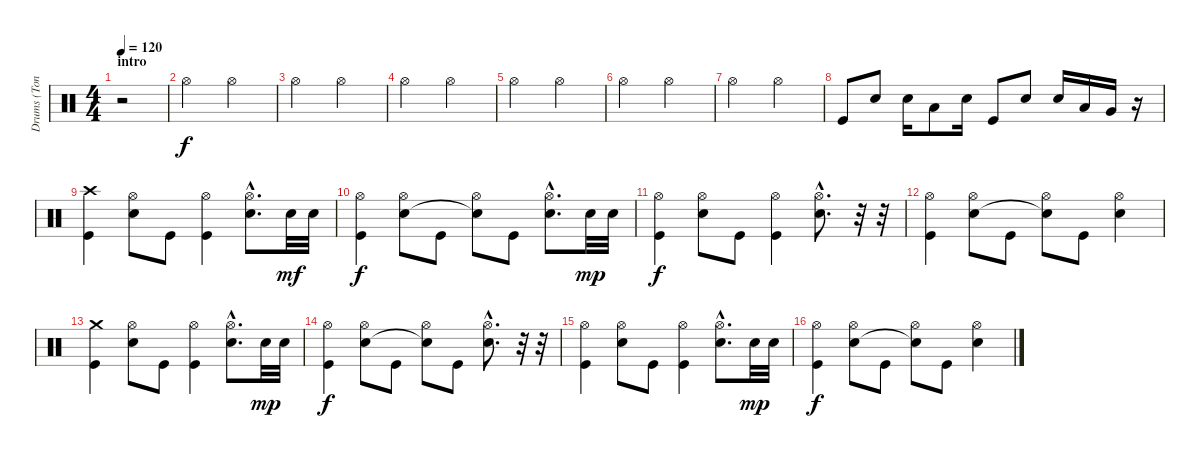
\track ("Drums (Tony McCarroll)" "Drums (Ton") {instrument percussion}
\staff {score}
\articulation defaults
\ts (4 4)
\section ("" "intro")
\tempo 120
\clef neutral
\ks c
r.2{dy f} |
"Hi-Hat (open)".2 "Hi-Hat (open)".2 |
"Hi-Hat (open)".2 "Hi-Hat (open)".2 |
"Hi-Hat (open)".2 "Hi-Hat (open)".2 |
"Hi-Hat (open)".2 "Hi-Hat (open)".2 |
"Hi-Hat (open)".2 "Hi-Hat (open)".2 |
"Hi-Hat (open)".2 "Hi-Hat (open)".2 |
"Kick (hit)".8 "Snare (hit) 2".8 "Snare (hit) 2".16 "Low Tom (hit)".8 "Snare (hit) 2".16 "Kick (hit)".8 "Snare (hit) 2".8 "Snare (hit) 2".16 "Low Tom (hit)".16 "Very Low Tom (hit)".16 r.16 |
("Crash high (hit)" "Kick (hit)").4 ("Hi-Hat (open)" "Snare (hit) 2").8 "Kick (hit)".8 ("Hi-Hat (open)" "Kick (hit)").4 ("Hi-Hat (open)"{hac} "Snare (hit) 2"{hac}).8{d} "Snare (hit) 2".32{dy mf} "Snare (hit) 2".32 |
("Hi-Hat (open)" "Kick (hit)").4{dy f} ("Hi-Hat (open)" "Snare (hit) 2").8 "Kick (hit)".8 ("Hi-Hat (open)" "Snare (hit)"{t}).8 "Kick (hit)".8 ("Hi-Hat (open)"{hac} "Snare (hit) 2"{hac}).8{d} "Snare (hit) 2".32{dy mp} "Snare (hit) 2".32 |
("Hi-Hat (open)" "Kick (hit)").4{dy f} ("Hi-Hat (open)" "Snare (hit) 2").8 "Kick (hit)".8 ("Hi-Hat (open)" "Kick (hit)").4 ("Hi-Hat (open)"{hac} "Snare (hit) 2"{hac}).8{d} r.32 r.32 |
("Hi-Hat (open)" "Kick (hit)").4 ("Hi-Hat (open)" "Snare (hit) 2").8 "Kick (hit)".8 ("Hi-Hat (open)" "Snare (hit)"{t}).8 "Kick (hit)".8 ("Hi-Hat (open)" "Snare (hit) 2").4 |
("Crash medium (hit)" "Kick (hit)").4 ("Hi-Hat (open)" "Snare (hit) 2").8 "Kick (hit)".8 ("Hi-Hat (open)" "Kick (hit)").4 ("Hi-Hat (open)"{hac} "Snare (hit) 2"{hac}).8{d} "Snare (hit) 2".32{dy mp} "Snare (hit) 2".32 |
("Hi-Hat (open)" "Kick (hit)").4{dy f} ("Hi-Hat (open)" "Snare (hit) 2").8 "Kick (hit)".8 ("Hi-Hat (open)" "Snare (hit)"{t}).8 "Kick (hit)".8 ("Hi-Hat (open)"{hac} "Snare (hit) 2"{hac}).8{d} r.32 r.32 |
("Hi-Hat (open)" "Kick (hit)").4 ("Hi-Hat (open)" "Snare (hit) 2").8 "Kick (hit)".8 ("Hi-Hat (open)" "Kick (hit)").4 ("Hi-Hat (open)"{hac} "Snare (hit) 2"{hac}).8{d} "Snare (hit) 2".32{dy mp} "Snare (hit) 2".32 |
("Hi-Hat (open)" "Kick (hit)").4{dy f} ("Hi-Hat (open)" "Snare (hit) 2").8 "Kick (hit)".8 ("Hi-Hat (open)" "Snare (hit)"{t}).8 "Kick (hit)".8 ("Hi-Hat (open)" "Snare (hit) 2").4
